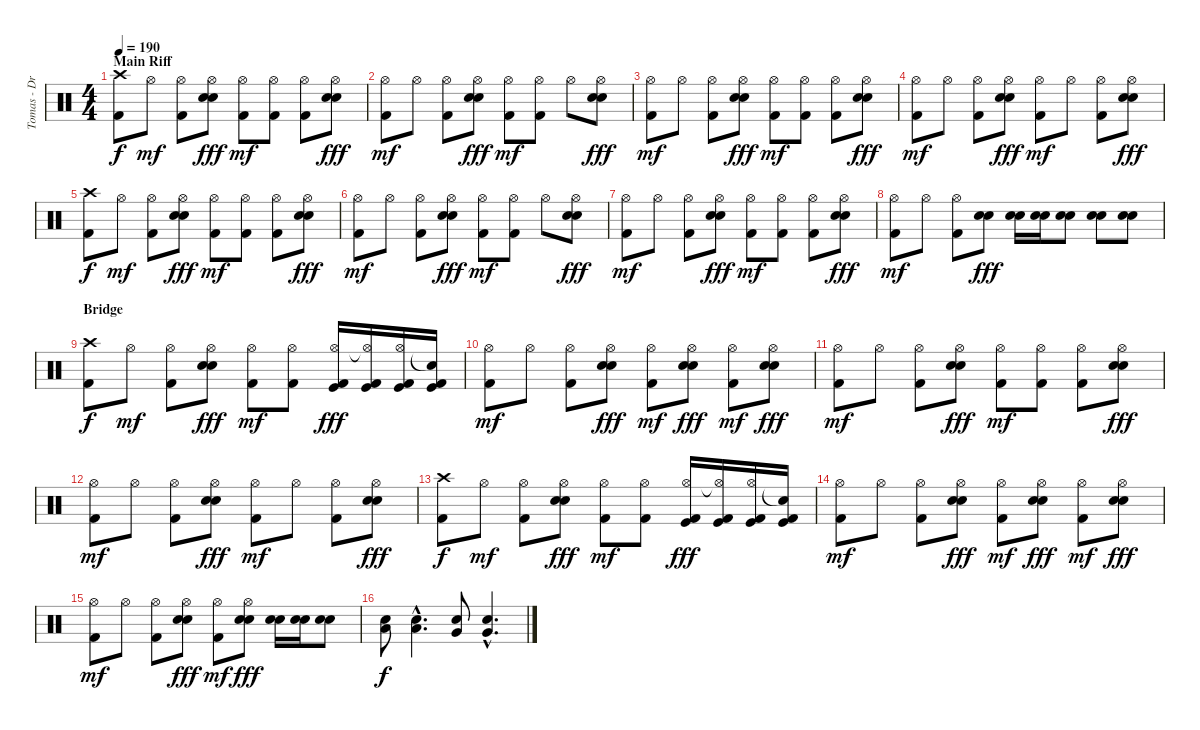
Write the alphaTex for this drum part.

\track ("Tomas - Drums" "Tomas - Dr") {instrument percussion}
\staff {score}
\articulation defaults
\ts (4 4)
\section ("" "Main Riff")
\tempo 190
\clef neutral
\ks c
("Crash high (hit)" "Kick (hit) 2").8{dy f} "Hi-Hat (open)".8{dy mf} ("Hi-Hat (open)" "Kick (hit) 2").8 ("Hi-Hat (open)" "Electric Snare (hit)" "Electric Snare (hit)").8{dy fff} ("Hi-Hat (open)" "Kick (hit) 2").8{dy mf} ("Hi-Hat (open)" "Kick (hit) 2").8 ("Hi-Hat (open)" "Kick (hit) 2").8 ("Hi-Hat (open)" "Electric Snare (hit)" "Electric Snare (hit)").8{dy fff} |
("Hi-Hat (open)" "Kick (hit) 2").8{dy mf} "Hi-Hat (open)".8 ("Hi-Hat (open)" "Kick (hit) 2").8 ("Hi-Hat (open)" "Electric Snare (hit)" "Electric Snare (hit)").8{dy fff} ("Hi-Hat (open)" "Kick (hit) 2").8{dy mf} ("Hi-Hat (open)" "Kick (hit) 2").8 "Hi-Hat (open)".8 ("Hi-Hat (open)" "Electric Snare (hit)" "Electric Snare (hit)").8{dy fff} |
("Hi-Hat (open)" "Kick (hit) 2").8{dy mf} "Hi-Hat (open)".8 ("Hi-Hat (open)" "Kick (hit) 2").8 ("Hi-Hat (open)" "Electric Snare (hit)" "Electric Snare (hit)").8{dy fff} ("Hi-Hat (open)" "Kick (hit) 2").8{dy mf} ("Hi-Hat (open)" "Kick (hit) 2").8 ("Hi-Hat (open)" "Kick (hit) 2").8 ("Hi-Hat (open)" "Electric Snare (hit)" "Electric Snare (hit)").8{dy fff} |
("Hi-Hat (open)" "Kick (hit) 2").8{dy mf} "Hi-Hat (open)".8 ("Hi-Hat (open)" "Kick (hit) 2").8 ("Hi-Hat (open)" "Electric Snare (hit)" "Electric Snare (hit)").8{dy fff} ("Hi-Hat (open)" "Kick (hit) 2").8{dy mf} "Hi-Hat (open)".8 ("Hi-Hat (open)" "Kick (hit) 2").8 ("Hi-Hat (open)" "Electric Snare (hit)" "Electric Snare (hit)").8{dy fff} |
("Crash high (hit)" "Kick (hit) 2").8{dy f} "Hi-Hat (open)".8{dy mf} ("Hi-Hat (open)" "Kick (hit) 2").8 ("Hi-Hat (open)" "Electric Snare (hit)" "Electric Snare (hit)").8{dy fff} ("Hi-Hat (open)" "Kick (hit) 2").8{dy mf} ("Hi-Hat (open)" "Kick (hit) 2").8 ("Hi-Hat (open)" "Kick (hit) 2").8 ("Hi-Hat (open)" "Electric Snare (hit)" "Electric Snare (hit)").8{dy fff} |
("Hi-Hat (open)" "Kick (hit) 2").8{dy mf} "Hi-Hat (open)".8 ("Hi-Hat (open)" "Kick (hit) 2").8 ("Hi-Hat (open)" "Electric Snare (hit)" "Electric Snare (hit)").8{dy fff} ("Hi-Hat (open)" "Kick (hit) 2").8{dy mf} ("Hi-Hat (open)" "Kick (hit) 2").8 "Hi-Hat (open)".8 ("Hi-Hat (open)" "Electric Snare (hit)" "Electric Snare (hit)").8{dy fff} |
("Hi-Hat (open)" "Kick (hit) 2").8{dy mf} "Hi-Hat (open)".8 ("Hi-Hat (open)" "Kick (hit) 2").8 ("Hi-Hat (open)" "Electric Snare (hit)" "Electric Snare (hit)").8{dy fff} ("Hi-Hat (open)" "Kick (hit) 2").8{dy mf} ("Hi-Hat (open)" "Kick (hit) 2").8 ("Hi-Hat (open)" "Kick (hit) 2").8 ("Hi-Hat (open)" "Electric Snare (hit)" "Electric Snare (hit)").8{dy fff} |
("Hi-Hat (open)" "Kick (hit) 2").8{dy mf} "Hi-Hat (open)".8 ("Hi-Hat (open)" "Kick (hit) 2").8 ("Electric Snare (hit)" "Electric Snare (hit)").8{dy fff} ("Electric Snare (hit)" "Electric Snare (hit)").16 ("Electric Snare (hit)" "Electric Snare (hit)").16 ("Electric Snare (hit)" "Electric Snare (hit)").8 ("Electric Snare (hit)" "Electric Snare (hit)").8 ("Electric Snare (hit)" "Electric Snare (hit)").8 |
\section ("" "Bridge")
("Crash high (hit)" "Kick (hit) 2").8{dy f} "Hi-Hat (open)".8{dy mf} ("Hi-Hat (open)" "Kick (hit) 2").8 ("Hi-Hat (open)" "Electric Snare (hit)" "Electric Snare (hit)").8{dy fff} ("Hi-Hat (open)" "Kick (hit) 2").8{dy mf} ("Hi-Hat (open)" "Kick (hit) 2").8 ("Hi-Hat (open)" "Kick (hit)" "Kick (hit) 2").16{dy fff} ("Hi-Hat (open)"{t} "Kick (hit)" "Kick (hit) 2").16 ("Hi-Hat (open)" "Kick (hit)" "Kick (hit) 2").16 ("Snare (hit)"{t} "Kick (hit)" "Kick (hit) 2").16 |
("Hi-Hat (open)" "Kick (hit) 2").8{dy mf} "Hi-Hat (open)".8 ("Hi-Hat (open)" "Kick (hit) 2").8 ("Hi-Hat (open)" "Electric Snare (hit)" "Electric Snare (hit)").8{dy fff} ("Hi-Hat (open)" "Kick (hit) 2").8{dy mf} ("Hi-Hat (open)" "Electric Snare (hit)" "Electric Snare (hit)").8{dy fff} ("Hi-Hat (open)" "Kick (hit) 2").8{dy mf} ("Hi-Hat (open)" "Electric Snare (hit)" "Electric Snare (hit)").8{dy fff} |
("Hi-Hat (open)" "Kick (hit) 2").8{dy mf} "Hi-Hat (open)".8 ("Hi-Hat (open)" "Kick (hit) 2").8 ("Hi-Hat (open)" "Electric Snare (hit)" "Electric Snare (hit)").8{dy fff} ("Hi-Hat (open)" "Kick (hit) 2").8{dy mf} ("Hi-Hat (open)" "Kick (hit) 2").8 ("Hi-Hat (open)" "Kick (hit) 2").8 ("Hi-Hat (open)" "Electric Snare (hit)" "Electric Snare (hit)").8{dy fff} |
("Hi-Hat (open)" "Kick (hit) 2").8{dy mf} "Hi-Hat (open)".8 ("Hi-Hat (open)" "Kick (hit) 2").8 ("Hi-Hat (open)" "Electric Snare (hit)" "Electric Snare (hit)").8{dy fff} ("Hi-Hat (open)" "Kick (hit) 2").8{dy mf} "Hi-Hat (open)".8 ("Hi-Hat (open)" "Kick (hit) 2").8 ("Hi-Hat (open)" "Electric Snare (hit)" "Electric Snare (hit)").8{dy fff} |
("Crash high (hit)" "Kick (hit) 2").8{dy f} "Hi-Hat (open)".8{dy mf} ("Hi-Hat (open)" "Kick (hit) 2").8 ("Hi-Hat (open)" "Electric Snare (hit)" "Electric Snare (hit)").8{dy fff} ("Hi-Hat (open)" "Kick (hit) 2").8{dy mf} ("Hi-Hat (open)" "Kick (hit) 2").8 ("Hi-Hat (open)" "Kick (hit)" "Kick (hit) 2").16{dy fff} ("Hi-Hat (open)"{t} "Kick (hit)" "Kick (hit) 2").16 ("Hi-Hat (open)" "Kick (hit)" "Kick (hit) 2").16 ("Snare (hit)"{t} "Kick (hit)" "Kick (hit) 2").16 |
("Hi-Hat (open)" "Kick (hit) 2").8{dy mf} "Hi-Hat (open)".8 ("Hi-Hat (open)" "Kick (hit) 2").8 ("Hi-Hat (open)" "Electric Snare (hit)" "Electric Snare (hit)").8{dy fff} ("Hi-Hat (open)" "Kick (hit) 2").8{dy mf} ("Hi-Hat (open)" "Electric Snare (hit)" "Electric Snare (hit)").8{dy fff} ("Hi-Hat (open)" "Kick (hit) 2").8{dy mf} ("Hi-Hat (open)" "Electric Snare (hit)" "Electric Snare (hit)").8{dy fff} |
("Hi-Hat (open)" "Kick (hit) 2").8{dy mf} "Hi-Hat (open)".8 ("Hi-Hat (open)" "Kick (hit) 2").8 ("Hi-Hat (open)" "Electric Snare (hit)" "Electric Snare (hit)").8{dy fff} ("Hi-Hat (open)" "Kick (hit) 2").8{dy mf} ("Hi-Hat (open)" "Electric Snare (hit)" "Electric Snare (hit)").8{dy fff} ("Electric Snare (hit)" "Electric Snare (hit)").16 ("Electric Snare (hit)" "Electric Snare (hit)").16 ("Electric Snare (hit)" "Electric Snare (hit)").8 |
("Low Tom (hit)" "Electric Snare (hit)").8{dy f} ("Low Tom (hit)"{hac} "Electric Snare (hit)"{hac}).4{d} ("Very Low Tom (hit)" "Electric Snare (hit)").8 ("Very Low Tom (hit)"{hac} "Electric Snare (hit)"{hac}).4{d}
